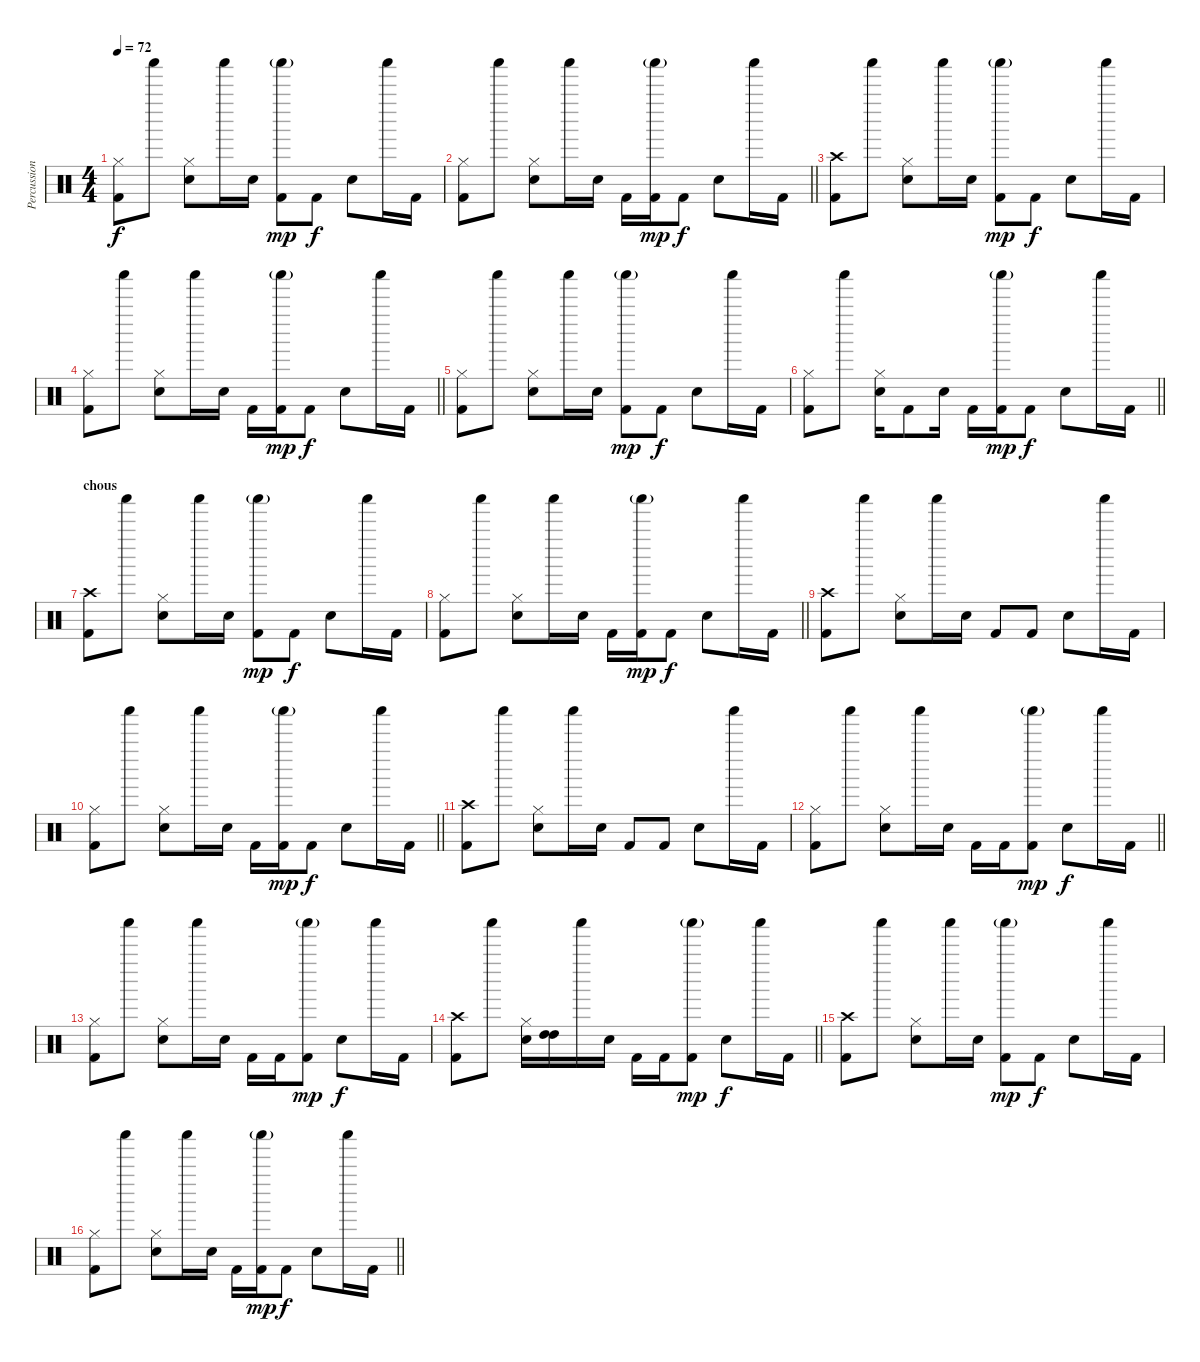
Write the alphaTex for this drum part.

\track ("Percussion" "Percussion") {instrument percussion bank 126}
\staff {score}
\articulation defaults
\ts (4 4)
\tempo 72
\clef neutral
\ks c
("Kick (hit) 2" "Hi-Hat (closed)").8{dy f} "Shaker (hit)".8 ("Hi-Hat (closed)" "Electric Snare (hit)").8 "Shaker (hit)".16 "Electric Snare (hit)".16 ("Kick (hit) 2" "Shaker (hit)"{g}).8{dy mp} "Kick (hit) 2".8{dy f} "Electric Snare (hit)".8 "Shaker (hit)".16 "Kick (hit) 2".16 |
\barLineRight lightlight
("Hi-Hat (closed)" "Kick (hit) 2").8 "Shaker (hit)".8 ("Hi-Hat (closed)" "Electric Snare (hit)").8 "Shaker (hit)".16 "Electric Snare (hit)".16 "Kick (hit) 2".16 ("Kick (hit) 2" "Shaker (hit)"{g}).16{dy mp} "Kick (hit) 2".8{dy f} "Electric Snare (hit)".8 "Shaker (hit)".16 "Kick (hit) 2".16 |
("Kick (hit) 2" "Crash high (hit)").8 "Shaker (hit)".8 ("Hi-Hat (closed)" "Electric Snare (hit)").8 "Shaker (hit)".16 "Electric Snare (hit)".16 ("Kick (hit) 2" "Shaker (hit)"{g}).8{dy mp} "Kick (hit) 2".8{dy f} "Electric Snare (hit)".8 "Shaker (hit)".16 "Kick (hit) 2".16 |
\barLineRight lightlight
("Hi-Hat (closed)" "Kick (hit) 2").8 "Shaker (hit)".8 ("Hi-Hat (closed)" "Electric Snare (hit)").8 "Shaker (hit)".16 "Electric Snare (hit)".16 "Kick (hit) 2".16 ("Kick (hit) 2" "Shaker (hit)"{g}).16{dy mp} "Kick (hit) 2".8{dy f} "Electric Snare (hit)".8 "Shaker (hit)".16 "Kick (hit) 2".16 |
("Kick (hit) 2" "Hi-Hat (closed)").8 "Shaker (hit)".8 ("Hi-Hat (closed)" "Electric Snare (hit)").8 "Shaker (hit)".16 "Electric Snare (hit)".16 ("Kick (hit) 2" "Shaker (hit)"{g}).8{dy mp} "Kick (hit) 2".8{dy f} "Electric Snare (hit)".8 "Shaker (hit)".16 "Kick (hit) 2".16 |
\barLineRight lightlight
("Hi-Hat (closed)" "Kick (hit) 2").8 "Shaker (hit)".8 ("Hi-Hat (closed)" "Electric Snare (hit)").16 "Kick (hit) 2".8 "Electric Snare (hit)".16 "Kick (hit) 2".16 ("Kick (hit) 2" "Shaker (hit)"{g}).16{dy mp} "Kick (hit) 2".8{dy f} "Electric Snare (hit)".8 "Shaker (hit)".16 "Kick (hit) 2".16 |
\section ("" "chous")
("Kick (hit) 2" "Crash high (hit)").8 "Shaker (hit)".8 ("Hi-Hat (closed)" "Electric Snare (hit)").8 "Shaker (hit)".16 "Electric Snare (hit)".16 ("Kick (hit) 2" "Shaker (hit)"{g}).8{dy mp} "Kick (hit) 2".8{dy f} "Electric Snare (hit)".8 "Shaker (hit)".16 "Kick (hit) 2".16 |
\barLineRight lightlight
("Hi-Hat (closed)" "Kick (hit) 2").8 "Shaker (hit)".8 ("Hi-Hat (closed)" "Electric Snare (hit)").8 "Shaker (hit)".16 "Electric Snare (hit)".16 "Kick (hit) 2".16 ("Kick (hit) 2" "Shaker (hit)"{g}).16{dy mp} "Kick (hit) 2".8{dy f} "Electric Snare (hit)".8 "Shaker (hit)".16 "Kick (hit) 2".16 |
("Kick (hit) 2" "Crash high (hit)").8 "Shaker (hit)".8 ("Hi-Hat (closed)" "Electric Snare (hit)").8 "Shaker (hit)".16 "Electric Snare (hit)".16 "Kick (hit) 2".8 "Kick (hit) 2".8 "Electric Snare (hit)".8 "Shaker (hit)".16 "Kick (hit) 2".16 |
\barLineRight lightlight
("Hi-Hat (closed)" "Kick (hit) 2").8 "Shaker (hit)".8 ("Hi-Hat (closed)" "Electric Snare (hit)").8 "Shaker (hit)".16 "Electric Snare (hit)".16 "Kick (hit) 2".16 ("Kick (hit) 2" "Shaker (hit)"{g}).16{dy mp} "Kick (hit) 2".8{dy f} "Electric Snare (hit)".8 "Shaker (hit)".16 "Kick (hit) 2".16 |
("Kick (hit) 2" "Crash high (hit)").8 "Shaker (hit)".8 ("Hi-Hat (closed)" "Electric Snare (hit)").8 "Shaker (hit)".16 "Electric Snare (hit)".16 "Kick (hit) 2".8 "Kick (hit) 2".8 "Electric Snare (hit)".8 "Shaker (hit)".16 "Kick (hit) 2".16 |
\barLineRight lightlight
("Hi-Hat (closed)" "Kick (hit) 2").8 "Shaker (hit)".8 ("Hi-Hat (closed)" "Electric Snare (hit)").8 "Shaker (hit)".16 "Electric Snare (hit)".16 "Kick (hit) 2".16 "Kick (hit) 2".16 ("Kick (hit) 2" "Shaker (hit)"{g}).8{dy mp} "Electric Snare (hit)".8{dy f} "Shaker (hit)".16 "Kick (hit) 2".16 |
("Hi-Hat (closed)" "Kick (hit) 2").8 "Shaker (hit)".8 ("Hi-Hat (closed)" "Electric Snare (hit)").8 "Shaker (hit)".16 "Electric Snare (hit)".16 "Kick (hit) 2".16 "Kick (hit) 2".16 ("Kick (hit) 2" "Shaker (hit)"{g}).8{dy mp} "Electric Snare (hit)".8{dy f} "Shaker (hit)".16 "Kick (hit) 2".16 |
\barLineRight lightlight
("Crash high (hit)" "Kick (hit) 2").8 "Shaker (hit)".8 ("Hi-Hat (closed)" "Electric Snare (hit)").16 ("High Tom (hit)" "High Tom (hit)").16 "Shaker (hit)".16 "Electric Snare (hit)".16 "Kick (hit) 2".16 "Kick (hit) 2".16 ("Kick (hit) 2" "Shaker (hit)"{g}).8{dy mp} "Electric Snare (hit)".8{dy f} "Shaker (hit)".16 "Kick (hit) 2".16 |
("Kick (hit) 2" "Crash high (hit)").8 "Shaker (hit)".8 ("Hi-Hat (closed)" "Electric Snare (hit)").8 "Shaker (hit)".16 "Electric Snare (hit)".16 ("Kick (hit) 2" "Shaker (hit)"{g}).8{dy mp} "Kick (hit) 2".8{dy f} "Electric Snare (hit)".8 "Shaker (hit)".16 "Kick (hit) 2".16 |
\barLineRight lightlight
("Hi-Hat (closed)" "Kick (hit) 2").8 "Shaker (hit)".8 ("Hi-Hat (closed)" "Electric Snare (hit)").8 "Shaker (hit)".16 "Electric Snare (hit)".16 "Kick (hit) 2".16 ("Kick (hit) 2" "Shaker (hit)"{g}).16{dy mp} "Kick (hit) 2".8{dy f} "Electric Snare (hit)".8 "Shaker (hit)".16 "Kick (hit) 2".16
